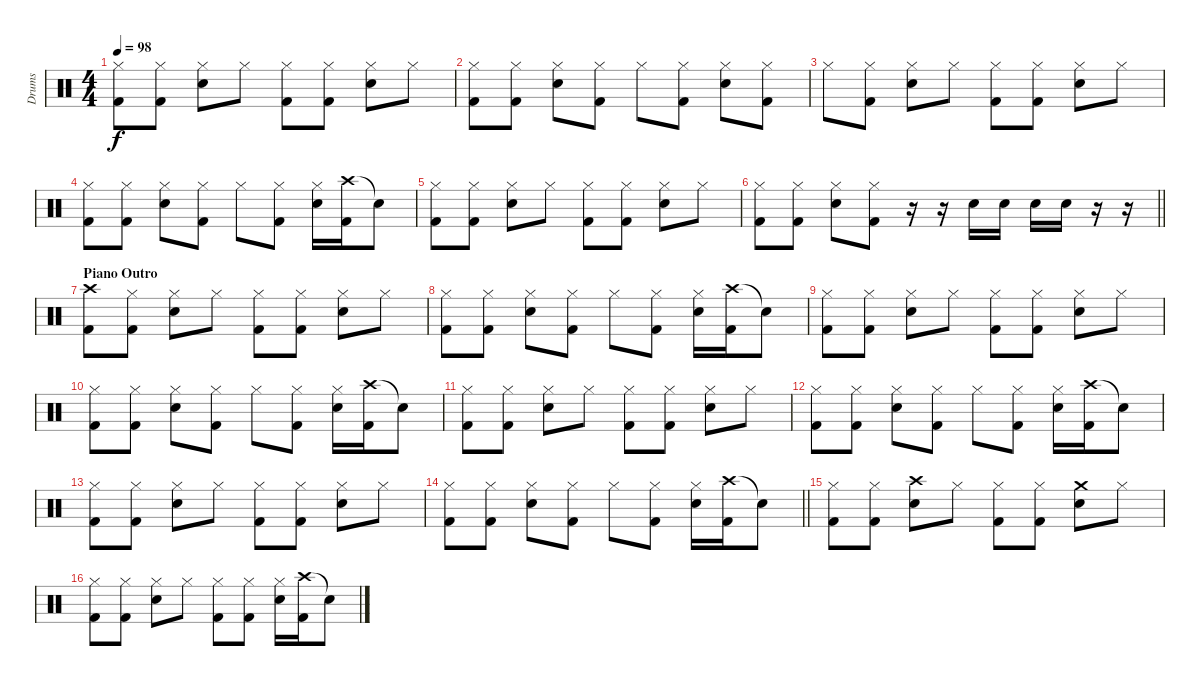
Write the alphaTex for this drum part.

\track ("Drums" "Drums") {instrument percussion}
\staff {score}
\articulation defaults
\ts (4 4)
\tempo 98
\clef neutral
\ks c
("Hi-Hat (closed)" "Kick (hit) 2").8{dy f} ("Hi-Hat (closed)" "Kick (hit) 2").8 ("Hi-Hat (closed)" "Snare (hit) 2").8 "Hi-Hat (closed)".8 ("Hi-Hat (closed)" "Kick (hit) 2").8 ("Hi-Hat (closed)" "Kick (hit) 2").8 ("Hi-Hat (closed)" "Snare (hit) 2").8 "Hi-Hat (closed)".8 |
("Hi-Hat (closed)" "Kick (hit) 2").8 ("Hi-Hat (closed)" "Kick (hit) 2").8 ("Hi-Hat (closed)" "Snare (hit) 2").8 ("Hi-Hat (closed)" "Kick (hit) 2").8 "Hi-Hat (closed)".8 ("Hi-Hat (closed)" "Kick (hit) 2").8 ("Hi-Hat (closed)" "Snare (hit) 2").8 ("Hi-Hat (closed)" "Kick (hit) 2").8 |
"Hi-Hat (closed)".8 ("Hi-Hat (closed)" "Kick (hit) 2").8 ("Hi-Hat (closed)" "Snare (hit) 2").8 "Hi-Hat (closed)".8 ("Hi-Hat (closed)" "Kick (hit) 2").8 ("Hi-Hat (closed)" "Kick (hit) 2").8 ("Hi-Hat (closed)" "Snare (hit) 2").8 "Hi-Hat (closed)".8 |
("Hi-Hat (closed)" "Kick (hit) 2").8 ("Hi-Hat (closed)" "Kick (hit) 2").8 ("Hi-Hat (closed)" "Snare (hit) 2").8 ("Hi-Hat (closed)" "Kick (hit) 2").8 "Hi-Hat (closed)".8 ("Hi-Hat (closed)" "Kick (hit) 2").8 ("Hi-Hat (closed)" "Snare (hit) 2").16 ("Crash high (hit)" "Kick (hit) 2").16 "Snare (hit)"{t}.8 |
("Hi-Hat (closed)" "Kick (hit) 2").8 ("Hi-Hat (closed)" "Kick (hit) 2").8 ("Hi-Hat (closed)" "Snare (hit) 2").8 "Hi-Hat (closed)".8 ("Hi-Hat (closed)" "Kick (hit) 2").8 ("Hi-Hat (closed)" "Kick (hit) 2").8 ("Hi-Hat (closed)" "Snare (hit) 2").8 "Hi-Hat (closed)".8 |
\barLineRight lightlight
("Hi-Hat (closed)" "Kick (hit) 2").8 ("Hi-Hat (closed)" "Kick (hit) 2").8 ("Hi-Hat (closed)" "Snare (hit) 2").8 ("Hi-Hat (closed)" "Kick (hit) 2").8 r.16 r.16 "Snare (hit) 2".16 "Snare (hit) 2".16 "Snare (hit) 2".16 "Snare (hit) 2".16 r.16 r.16 |
\section ("" "Piano Outro")
("Crash high (hit)" "Kick (hit) 2").8 ("Hi-Hat (closed)" "Kick (hit) 2").8 ("Hi-Hat (closed)" "Snare (hit) 2").8 "Hi-Hat (closed)".8 ("Hi-Hat (closed)" "Kick (hit) 2").8 ("Hi-Hat (closed)" "Kick (hit) 2").8 ("Hi-Hat (closed)" "Snare (hit) 2").8 "Hi-Hat (closed)".8 |
("Hi-Hat (closed)" "Kick (hit) 2").8 ("Hi-Hat (closed)" "Kick (hit) 2").8 ("Hi-Hat (closed)" "Snare (hit) 2").8 ("Hi-Hat (closed)" "Kick (hit) 2").8 "Hi-Hat (closed)".8 ("Hi-Hat (closed)" "Kick (hit) 2").8 ("Hi-Hat (closed)" "Snare (hit) 2").16 ("Crash high (hit)" "Kick (hit) 2").16 "Snare (hit)"{t}.8 |
("Hi-Hat (closed)" "Kick (hit) 2").8 ("Hi-Hat (closed)" "Kick (hit) 2").8 ("Hi-Hat (closed)" "Snare (hit) 2").8 "Hi-Hat (closed)".8 ("Hi-Hat (closed)" "Kick (hit) 2").8 ("Hi-Hat (closed)" "Kick (hit) 2").8 ("Hi-Hat (closed)" "Snare (hit) 2").8 "Hi-Hat (closed)".8 |
("Hi-Hat (closed)" "Kick (hit) 2").8 ("Hi-Hat (closed)" "Kick (hit) 2").8 ("Hi-Hat (closed)" "Snare (hit) 2").8 ("Hi-Hat (closed)" "Kick (hit) 2").8 "Hi-Hat (closed)".8 ("Hi-Hat (closed)" "Kick (hit) 2").8 ("Hi-Hat (closed)" "Snare (hit) 2").16 ("Crash high (hit)" "Kick (hit) 2").16 "Snare (hit)"{t}.8 |
("Hi-Hat (closed)" "Kick (hit) 2").8 ("Hi-Hat (closed)" "Kick (hit) 2").8 ("Hi-Hat (closed)" "Snare (hit) 2").8 "Hi-Hat (closed)".8 ("Hi-Hat (closed)" "Kick (hit) 2").8 ("Hi-Hat (closed)" "Kick (hit) 2").8 ("Hi-Hat (closed)" "Snare (hit) 2").8 "Hi-Hat (closed)".8 |
("Hi-Hat (closed)" "Kick (hit) 2").8 ("Hi-Hat (closed)" "Kick (hit) 2").8 ("Hi-Hat (closed)" "Snare (hit) 2").8 ("Hi-Hat (closed)" "Kick (hit) 2").8 "Hi-Hat (closed)".8 ("Hi-Hat (closed)" "Kick (hit) 2").8 ("Hi-Hat (closed)" "Snare (hit) 2").16 ("Crash high (hit)" "Kick (hit) 2").16 "Snare (hit)"{t}.8 |
("Hi-Hat (closed)" "Kick (hit) 2").8 ("Hi-Hat (closed)" "Kick (hit) 2").8 ("Hi-Hat (closed)" "Snare (hit) 2").8 "Hi-Hat (closed)".8 ("Hi-Hat (closed)" "Kick (hit) 2").8 ("Hi-Hat (closed)" "Kick (hit) 2").8 ("Hi-Hat (closed)" "Snare (hit) 2").8 "Hi-Hat (closed)".8 |
\barLineRight lightlight
("Hi-Hat (closed)" "Kick (hit) 2").8 ("Hi-Hat (closed)" "Kick (hit) 2").8 ("Hi-Hat (closed)" "Snare (hit) 2").8 ("Hi-Hat (closed)" "Kick (hit) 2").8 "Hi-Hat (closed)".8 ("Hi-Hat (closed)" "Kick (hit) 2").8 ("Hi-Hat (closed)" "Snare (hit) 2").16 ("Crash high (hit)" "Kick (hit) 2").16 "Snare (hit)"{t}.8 |
("Hi-Hat (closed)" "Kick (hit) 2").8 ("Hi-Hat (closed)" "Kick (hit) 2").8 ("Crash high (hit)" "Snare (hit) 2").8 "Hi-Hat (closed)".8 ("Hi-Hat (closed)" "Kick (hit) 2").8 ("Hi-Hat (closed)" "Kick (hit) 2").8 ("Crash medium (hit)" "Snare (hit) 2").8 "Hi-Hat (closed)".8 |
("Hi-Hat (closed)" "Kick (hit) 2").8 ("Hi-Hat (closed)" "Kick (hit) 2").8 ("Hi-Hat (closed)" "Snare (hit) 2").8 "Hi-Hat (closed)".8 ("Hi-Hat (closed)" "Kick (hit) 2").8 ("Hi-Hat (closed)" "Kick (hit) 2").8 ("Hi-Hat (closed)" "Snare (hit) 2").16 ("Crash high (hit)" "Kick (hit) 2").16 "Snare (hit)"{t}.8
